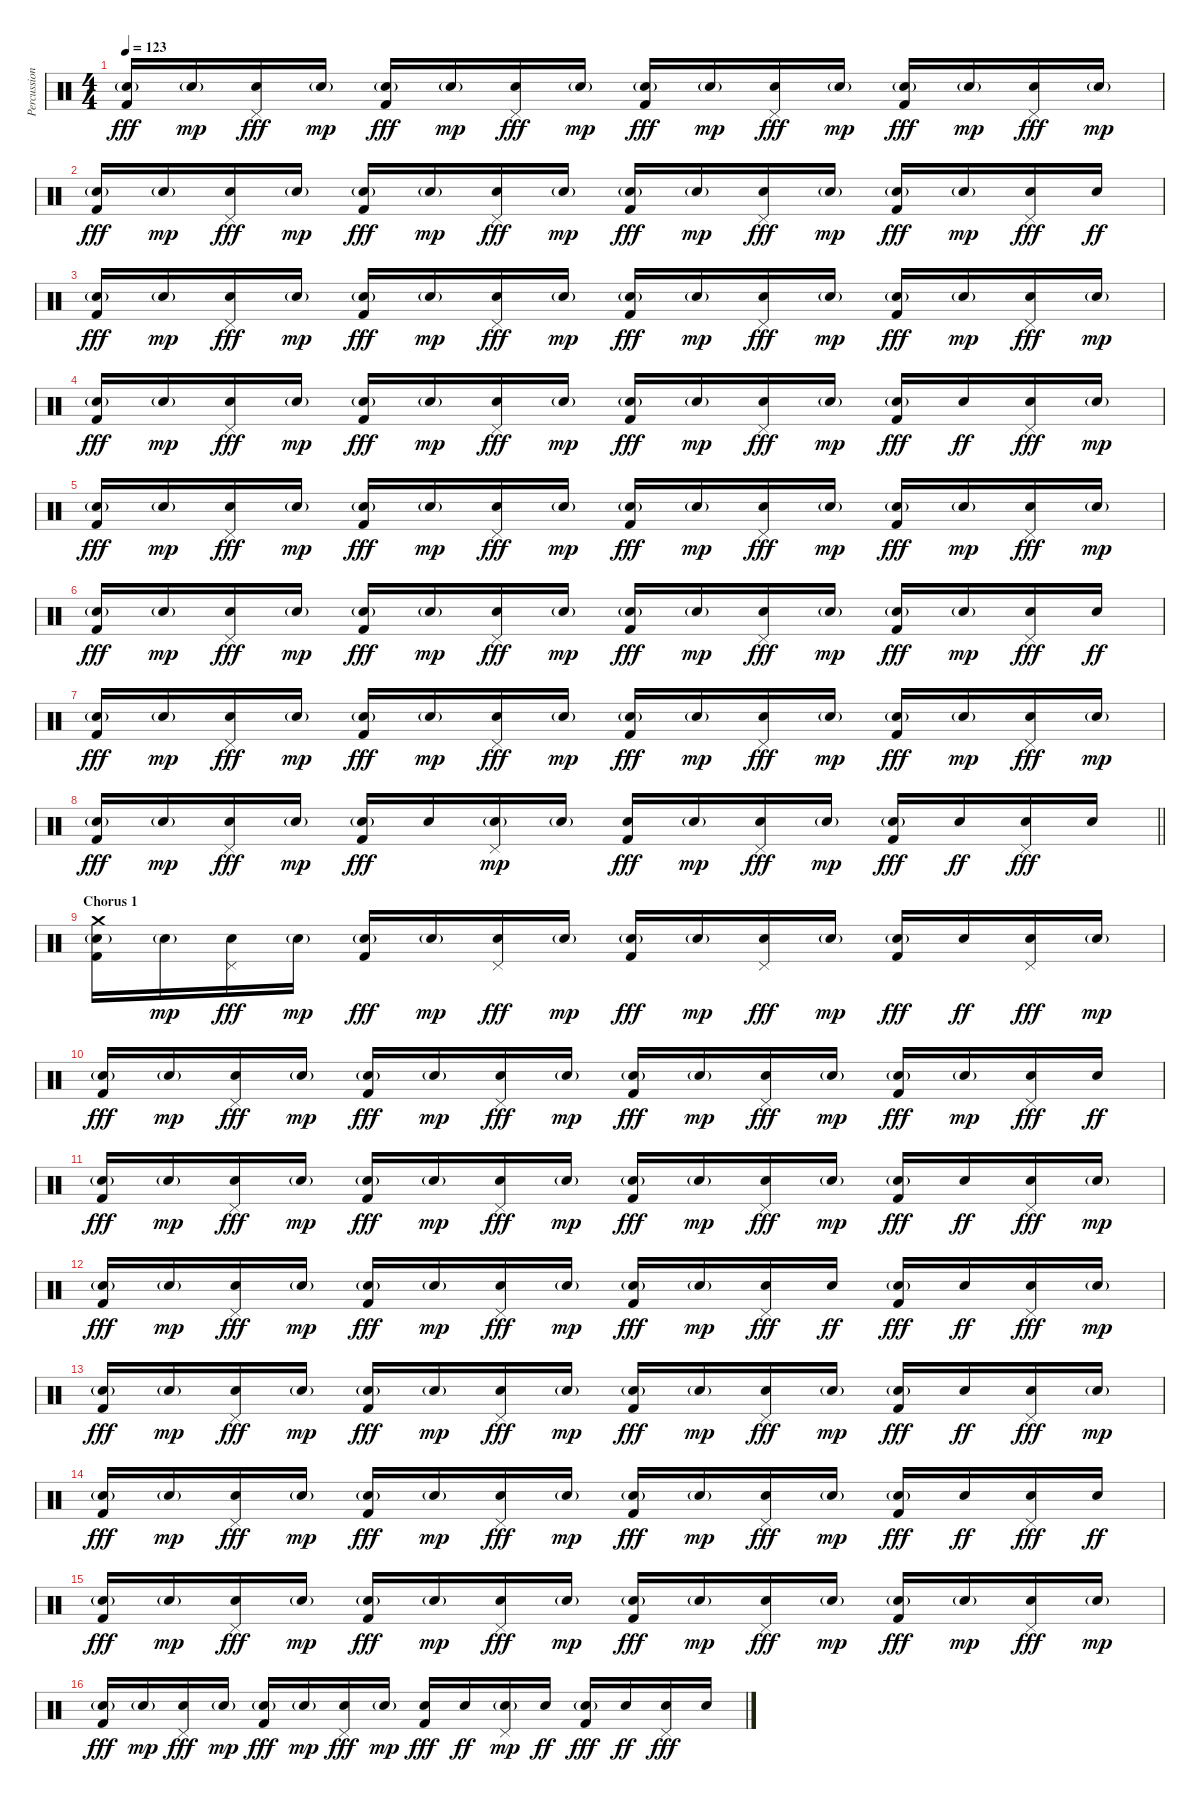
\track ("Percussion" "Percussion") {instrument percussion}
\staff {score}
\articulation defaults
\ts (4 4)
\tempo 123
\clef neutral
\ks c
("Electric Snare (hit)"{g} "Kick (hit) 2").16{dy fff} "Electric Snare (hit)"{g}.16{dy mp} ("Pedal Hi-Hat (hit)" "Electric Snare (hit)").16{dy fff} "Electric Snare (hit)"{g}.16{dy mp} ("Electric Snare (hit)"{g} "Kick (hit) 2").16{dy fff} "Electric Snare (hit)"{g}.16{dy mp} ("Pedal Hi-Hat (hit)" "Electric Snare (hit)").16{dy fff} "Electric Snare (hit)"{g}.16{dy mp} ("Electric Snare (hit)"{g} "Kick (hit) 2").16{dy fff} "Electric Snare (hit)"{g}.16{dy mp} ("Pedal Hi-Hat (hit)" "Electric Snare (hit)").16{dy fff} "Electric Snare (hit)"{g}.16{dy mp} ("Electric Snare (hit)"{g} "Kick (hit) 2").16{dy fff} "Electric Snare (hit)"{g}.16{dy mp} ("Pedal Hi-Hat (hit)" "Electric Snare (hit)").16{dy fff} "Electric Snare (hit)"{g}.16{dy mp} |
("Electric Snare (hit)"{g} "Kick (hit) 2").16{dy fff} "Electric Snare (hit)"{g}.16{dy mp} ("Pedal Hi-Hat (hit)" "Electric Snare (hit)").16{dy fff} "Electric Snare (hit)"{g}.16{dy mp} ("Electric Snare (hit)"{g} "Kick (hit) 2").16{dy fff} "Electric Snare (hit)"{g}.16{dy mp} ("Pedal Hi-Hat (hit)" "Electric Snare (hit)").16{dy fff} "Electric Snare (hit)"{g}.16{dy mp} ("Electric Snare (hit)"{g} "Kick (hit) 2").16{dy fff} "Electric Snare (hit)"{g}.16{dy mp} ("Pedal Hi-Hat (hit)" "Electric Snare (hit)").16{dy fff} "Electric Snare (hit)"{g}.16{dy mp} ("Electric Snare (hit)"{g} "Kick (hit) 2").16{dy fff} "Electric Snare (hit)"{g}.16{dy mp} ("Pedal Hi-Hat (hit)" "Electric Snare (hit)").16{dy fff} "Electric Snare (hit)".16{dy ff} |
("Electric Snare (hit)"{g} "Kick (hit) 2").16{dy fff} "Electric Snare (hit)"{g}.16{dy mp} ("Pedal Hi-Hat (hit)" "Electric Snare (hit)").16{dy fff} "Electric Snare (hit)"{g}.16{dy mp} ("Electric Snare (hit)"{g} "Kick (hit) 2").16{dy fff} "Electric Snare (hit)"{g}.16{dy mp} ("Pedal Hi-Hat (hit)" "Electric Snare (hit)").16{dy fff} "Electric Snare (hit)"{g}.16{dy mp} ("Electric Snare (hit)"{g} "Kick (hit) 2").16{dy fff} "Electric Snare (hit)"{g}.16{dy mp} ("Pedal Hi-Hat (hit)" "Electric Snare (hit)").16{dy fff} "Electric Snare (hit)"{g}.16{dy mp} ("Electric Snare (hit)"{g} "Kick (hit) 2").16{dy fff} "Electric Snare (hit)"{g}.16{dy mp} ("Pedal Hi-Hat (hit)" "Electric Snare (hit)").16{dy fff} "Electric Snare (hit)"{g}.16{dy mp} |
("Electric Snare (hit)"{g} "Kick (hit) 2").16{dy fff} "Electric Snare (hit)"{g}.16{dy mp} ("Pedal Hi-Hat (hit)" "Electric Snare (hit)").16{dy fff} "Electric Snare (hit)"{g}.16{dy mp} ("Electric Snare (hit)"{g} "Kick (hit) 2").16{dy fff} "Electric Snare (hit)"{g}.16{dy mp} ("Pedal Hi-Hat (hit)" "Electric Snare (hit)").16{dy fff} "Electric Snare (hit)"{g}.16{dy mp} ("Electric Snare (hit)"{g} "Kick (hit) 2").16{dy fff} "Electric Snare (hit)"{g}.16{dy mp} ("Pedal Hi-Hat (hit)" "Electric Snare (hit)").16{dy fff} "Electric Snare (hit)"{g}.16{dy mp} ("Electric Snare (hit)"{g} "Kick (hit) 2").16{dy fff} "Electric Snare (hit)".16{dy ff} ("Pedal Hi-Hat (hit)" "Electric Snare (hit)").16{dy fff} "Electric Snare (hit)"{g}.16{dy mp} |
("Electric Snare (hit)"{g} "Kick (hit) 2").16{dy fff} "Electric Snare (hit)"{g}.16{dy mp} ("Pedal Hi-Hat (hit)" "Electric Snare (hit)").16{dy fff} "Electric Snare (hit)"{g}.16{dy mp} ("Electric Snare (hit)"{g} "Kick (hit) 2").16{dy fff} "Electric Snare (hit)"{g}.16{dy mp} ("Pedal Hi-Hat (hit)" "Electric Snare (hit)").16{dy fff} "Electric Snare (hit)"{g}.16{dy mp} ("Electric Snare (hit)"{g} "Kick (hit) 2").16{dy fff} "Electric Snare (hit)"{g}.16{dy mp} ("Pedal Hi-Hat (hit)" "Electric Snare (hit)").16{dy fff} "Electric Snare (hit)"{g}.16{dy mp} ("Electric Snare (hit)"{g} "Kick (hit) 2").16{dy fff} "Electric Snare (hit)"{g}.16{dy mp} ("Pedal Hi-Hat (hit)" "Electric Snare (hit)").16{dy fff} "Electric Snare (hit)"{g}.16{dy mp} |
("Electric Snare (hit)"{g} "Kick (hit) 2").16{dy fff} "Electric Snare (hit)"{g}.16{dy mp} ("Pedal Hi-Hat (hit)" "Electric Snare (hit)").16{dy fff} "Electric Snare (hit)"{g}.16{dy mp} ("Electric Snare (hit)"{g} "Kick (hit) 2").16{dy fff} "Electric Snare (hit)"{g}.16{dy mp} ("Pedal Hi-Hat (hit)" "Electric Snare (hit)").16{dy fff} "Electric Snare (hit)"{g}.16{dy mp} ("Electric Snare (hit)"{g} "Kick (hit) 2").16{dy fff} "Electric Snare (hit)"{g}.16{dy mp} ("Pedal Hi-Hat (hit)" "Electric Snare (hit)").16{dy fff} "Electric Snare (hit)"{g}.16{dy mp} ("Electric Snare (hit)"{g} "Kick (hit) 2").16{dy fff} "Electric Snare (hit)"{g}.16{dy mp} ("Pedal Hi-Hat (hit)" "Electric Snare (hit)").16{dy fff} "Electric Snare (hit)".16{dy ff} |
("Electric Snare (hit)"{g} "Kick (hit) 2").16{dy fff} "Electric Snare (hit)"{g}.16{dy mp} ("Pedal Hi-Hat (hit)" "Electric Snare (hit)").16{dy fff} "Electric Snare (hit)"{g}.16{dy mp} ("Electric Snare (hit)"{g} "Kick (hit) 2").16{dy fff} "Electric Snare (hit)"{g}.16{dy mp} ("Pedal Hi-Hat (hit)" "Electric Snare (hit)").16{dy fff} "Electric Snare (hit)"{g}.16{dy mp} ("Electric Snare (hit)"{g} "Kick (hit) 2").16{dy fff} "Electric Snare (hit)"{g}.16{dy mp} ("Pedal Hi-Hat (hit)" "Electric Snare (hit)").16{dy fff} "Electric Snare (hit)"{g}.16{dy mp} ("Electric Snare (hit)"{g} "Kick (hit) 2").16{dy fff} "Electric Snare (hit)"{g}.16{dy mp} ("Pedal Hi-Hat (hit)" "Electric Snare (hit)").16{dy fff} "Electric Snare (hit)"{g}.16{dy mp} |
\barLineRight lightlight
("Electric Snare (hit)"{g} "Kick (hit) 2").16{dy fff} "Electric Snare (hit)"{g}.16{dy mp} ("Pedal Hi-Hat (hit)" "Electric Snare (hit)").16{dy fff} "Electric Snare (hit)"{g}.16{dy mp} ("Electric Snare (hit)"{g} "Kick (hit) 2").16{dy fff} "Electric Snare (hit)".16 ("Pedal Hi-Hat (hit)" "Electric Snare (hit)"{g}).16{dy mp} "Electric Snare (hit)"{g}.16 ("Electric Snare (hit)" "Kick (hit) 2").16{dy fff} "Electric Snare (hit)"{g}.16{dy mp} ("Pedal Hi-Hat (hit)" "Electric Snare (hit)").16{dy fff} "Electric Snare (hit)"{g}.16{dy mp} ("Electric Snare (hit)"{g} "Kick (hit) 2").16{dy fff} "Electric Snare (hit)".16{dy ff} ("Pedal Hi-Hat (hit)" "Electric Snare (hit)").16{dy fff} "Electric Snare (hit)".16 |
\section ("" "Chorus 1")
("Crash medium (hit)" "Electric Snare (hit)"{g} "Kick (hit) 2").16 "Electric Snare (hit)"{g}.16{dy mp} ("Pedal Hi-Hat (hit)" "Electric Snare (hit)").16{dy fff} "Electric Snare (hit)"{g}.16{dy mp} ("Electric Snare (hit)"{g} "Kick (hit) 2").16{dy fff} "Electric Snare (hit)"{g}.16{dy mp} ("Pedal Hi-Hat (hit)" "Electric Snare (hit)").16{dy fff} "Electric Snare (hit)"{g}.16{dy mp} ("Electric Snare (hit)"{g} "Kick (hit) 2").16{dy fff} "Electric Snare (hit)"{g}.16{dy mp} ("Pedal Hi-Hat (hit)" "Electric Snare (hit)").16{dy fff} "Electric Snare (hit)"{g}.16{dy mp} ("Electric Snare (hit)"{g} "Kick (hit) 2").16{dy fff} "Electric Snare (hit)".16{dy ff} ("Pedal Hi-Hat (hit)" "Electric Snare (hit)").16{dy fff} "Electric Snare (hit)"{g}.16{dy mp} |
("Electric Snare (hit)"{g} "Kick (hit) 2").16{dy fff} "Electric Snare (hit)"{g}.16{dy mp} ("Pedal Hi-Hat (hit)" "Electric Snare (hit)").16{dy fff} "Electric Snare (hit)"{g}.16{dy mp} ("Electric Snare (hit)"{g} "Kick (hit) 2").16{dy fff} "Electric Snare (hit)"{g}.16{dy mp} ("Pedal Hi-Hat (hit)" "Electric Snare (hit)").16{dy fff} "Electric Snare (hit)"{g}.16{dy mp} ("Electric Snare (hit)"{g} "Kick (hit) 2").16{dy fff} "Electric Snare (hit)"{g}.16{dy mp} ("Pedal Hi-Hat (hit)" "Electric Snare (hit)").16{dy fff} "Electric Snare (hit)"{g}.16{dy mp} ("Electric Snare (hit)"{g} "Kick (hit) 2").16{dy fff} "Electric Snare (hit)"{g}.16{dy mp} ("Pedal Hi-Hat (hit)" "Electric Snare (hit)").16{dy fff} "Electric Snare (hit)".16{dy ff} |
("Electric Snare (hit)"{g} "Kick (hit) 2").16{dy fff} "Electric Snare (hit)"{g}.16{dy mp} ("Pedal Hi-Hat (hit)" "Electric Snare (hit)").16{dy fff} "Electric Snare (hit)"{g}.16{dy mp} ("Electric Snare (hit)"{g} "Kick (hit) 2").16{dy fff} "Electric Snare (hit)"{g}.16{dy mp} ("Pedal Hi-Hat (hit)" "Electric Snare (hit)").16{dy fff} "Electric Snare (hit)"{g}.16{dy mp} ("Electric Snare (hit)"{g} "Kick (hit) 2").16{dy fff} "Electric Snare (hit)"{g}.16{dy mp} ("Pedal Hi-Hat (hit)" "Electric Snare (hit)").16{dy fff} "Electric Snare (hit)"{g}.16{dy mp} ("Electric Snare (hit)"{g} "Kick (hit) 2").16{dy fff} "Electric Snare (hit)".16{dy ff} ("Pedal Hi-Hat (hit)" "Electric Snare (hit)").16{dy fff} "Electric Snare (hit)"{g}.16{dy mp} |
("Electric Snare (hit)"{g} "Kick (hit) 2").16{dy fff} "Electric Snare (hit)"{g}.16{dy mp} ("Pedal Hi-Hat (hit)" "Electric Snare (hit)").16{dy fff} "Electric Snare (hit)"{g}.16{dy mp} ("Electric Snare (hit)"{g} "Kick (hit) 2").16{dy fff} "Electric Snare (hit)"{g}.16{dy mp} ("Pedal Hi-Hat (hit)" "Electric Snare (hit)").16{dy fff} "Electric Snare (hit)"{g}.16{dy mp} ("Electric Snare (hit)"{g} "Kick (hit) 2").16{dy fff} "Electric Snare (hit)"{g}.16{dy mp} ("Pedal Hi-Hat (hit)" "Electric Snare (hit)").16{dy fff} "Electric Snare (hit)".16{dy ff} ("Electric Snare (hit)"{g} "Kick (hit) 2").16{dy fff} "Electric Snare (hit)".16{dy ff} ("Pedal Hi-Hat (hit)" "Electric Snare (hit)").16{dy fff} "Electric Snare (hit)"{g}.16{dy mp} |
("Electric Snare (hit)"{g} "Kick (hit) 2").16{dy fff} "Electric Snare (hit)"{g}.16{dy mp} ("Pedal Hi-Hat (hit)" "Electric Snare (hit)").16{dy fff} "Electric Snare (hit)"{g}.16{dy mp} ("Electric Snare (hit)"{g} "Kick (hit) 2").16{dy fff} "Electric Snare (hit)"{g}.16{dy mp} ("Pedal Hi-Hat (hit)" "Electric Snare (hit)").16{dy fff} "Electric Snare (hit)"{g}.16{dy mp} ("Electric Snare (hit)"{g} "Kick (hit) 2").16{dy fff} "Electric Snare (hit)"{g}.16{dy mp} ("Pedal Hi-Hat (hit)" "Electric Snare (hit)").16{dy fff} "Electric Snare (hit)"{g}.16{dy mp} ("Electric Snare (hit)"{g} "Kick (hit) 2").16{dy fff} "Electric Snare (hit)".16{dy ff} ("Pedal Hi-Hat (hit)" "Electric Snare (hit)").16{dy fff} "Electric Snare (hit)"{g}.16{dy mp} |
("Electric Snare (hit)"{g} "Kick (hit) 2").16{dy fff} "Electric Snare (hit)"{g}.16{dy mp} ("Pedal Hi-Hat (hit)" "Electric Snare (hit)").16{dy fff} "Electric Snare (hit)"{g}.16{dy mp} ("Electric Snare (hit)"{g} "Kick (hit) 2").16{dy fff} "Electric Snare (hit)"{g}.16{dy mp} ("Pedal Hi-Hat (hit)" "Electric Snare (hit)").16{dy fff} "Electric Snare (hit)"{g}.16{dy mp} ("Electric Snare (hit)"{g} "Kick (hit) 2").16{dy fff} "Electric Snare (hit)"{g}.16{dy mp} ("Pedal Hi-Hat (hit)" "Electric Snare (hit)").16{dy fff} "Electric Snare (hit)"{g}.16{dy mp} ("Electric Snare (hit)"{g} "Kick (hit) 2").16{dy fff} "Electric Snare (hit)".16{dy ff} ("Pedal Hi-Hat (hit)" "Electric Snare (hit)").16{dy fff} "Electric Snare (hit)".16{dy ff} |
("Electric Snare (hit)"{g} "Kick (hit) 2").16{dy fff} "Electric Snare (hit)"{g}.16{dy mp} ("Pedal Hi-Hat (hit)" "Electric Snare (hit)").16{dy fff} "Electric Snare (hit)"{g}.16{dy mp} ("Electric Snare (hit)"{g} "Kick (hit) 2").16{dy fff} "Electric Snare (hit)"{g}.16{dy mp} ("Pedal Hi-Hat (hit)" "Electric Snare (hit)").16{dy fff} "Electric Snare (hit)"{g}.16{dy mp} ("Electric Snare (hit)"{g} "Kick (hit) 2").16{dy fff} "Electric Snare (hit)"{g}.16{dy mp} ("Pedal Hi-Hat (hit)" "Electric Snare (hit)").16{dy fff} "Electric Snare (hit)"{g}.16{dy mp} ("Electric Snare (hit)"{g} "Kick (hit) 2").16{dy fff} "Electric Snare (hit)"{g}.16{dy mp} ("Pedal Hi-Hat (hit)" "Electric Snare (hit)").16{dy fff} "Electric Snare (hit)"{g}.16{dy mp} |
("Electric Snare (hit)"{g} "Kick (hit) 2").16{dy fff} "Electric Snare (hit)"{g}.16{dy mp} ("Pedal Hi-Hat (hit)" "Electric Snare (hit)").16{dy fff} "Electric Snare (hit)"{g}.16{dy mp} ("Electric Snare (hit)"{g} "Kick (hit) 2").16{dy fff} "Electric Snare (hit)"{g}.16{dy mp} ("Pedal Hi-Hat (hit)" "Electric Snare (hit)").16{dy fff} "Electric Snare (hit)"{g}.16{dy mp} ("Electric Snare (hit)" "Kick (hit) 2").16{dy fff} "Electric Snare (hit)".16{dy ff} ("Pedal Hi-Hat (hit)" "Electric Snare (hit)"{g}).16{dy mp} "Electric Snare (hit)".16{dy ff} ("Electric Snare (hit)"{g} "Kick (hit) 2").16{dy fff} "Electric Snare (hit)".16{dy ff} ("Pedal Hi-Hat (hit)" "Electric Snare (hit)").16{dy fff} "Electric Snare (hit)".16
